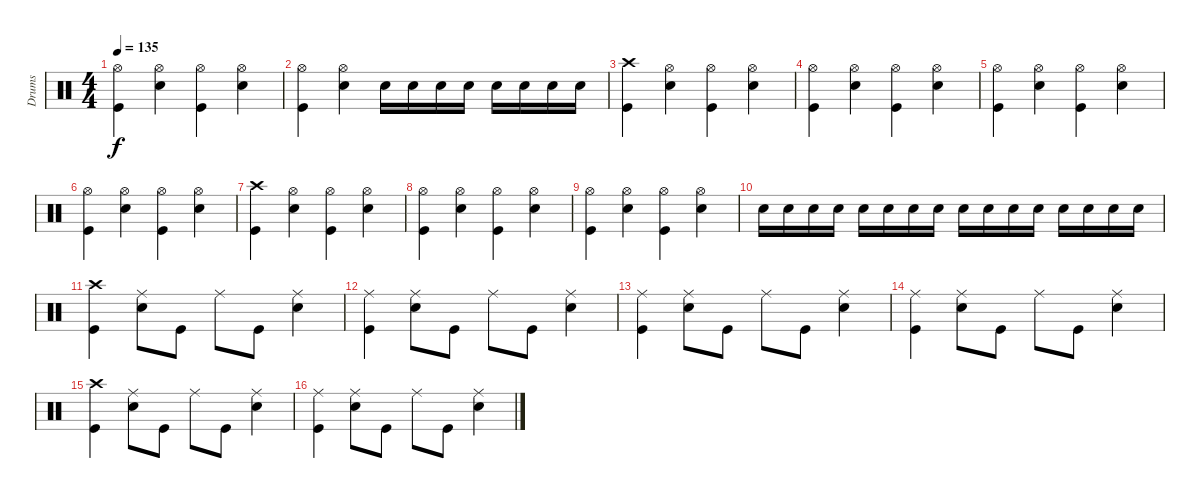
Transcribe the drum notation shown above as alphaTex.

\track ("Drums" "Drums") {instrument percussion}
\staff {score}
\articulation defaults
\ts (4 4)
\tempo 135
\clef neutral
\ks c
("Hi-Hat (open)" "Kick (hit)").4{dy f} ("Hi-Hat (open)" "Snare (hit) 2").4 ("Hi-Hat (open)" "Kick (hit)").4 ("Hi-Hat (open)" "Snare (hit) 2").4 |
("Hi-Hat (open)" "Kick (hit)").4 ("Hi-Hat (open)" "Snare (hit) 2").4 "Snare (hit) 2".16 "Snare (hit) 2".16 "Snare (hit) 2".16 "Snare (hit) 2".16 "Snare (hit) 2".16 "Snare (hit) 2".16 "Snare (hit) 2".16 "Snare (hit) 2".16 |
("Crash high (hit)" "Kick (hit)").4 ("Hi-Hat (open)" "Snare (hit) 2").4 ("Hi-Hat (open)" "Kick (hit)").4 ("Hi-Hat (open)" "Snare (hit) 2").4 |
("Hi-Hat (open)" "Kick (hit)").4 ("Hi-Hat (open)" "Snare (hit) 2").4 ("Hi-Hat (open)" "Kick (hit)").4 ("Hi-Hat (open)" "Snare (hit) 2").4 |
("Hi-Hat (open)" "Kick (hit)").4 ("Hi-Hat (open)" "Snare (hit) 2").4 ("Hi-Hat (open)" "Kick (hit)").4 ("Hi-Hat (open)" "Snare (hit) 2").4 |
("Hi-Hat (open)" "Kick (hit)").4 ("Hi-Hat (open)" "Snare (hit) 2").4 ("Hi-Hat (open)" "Kick (hit)").4 ("Hi-Hat (open)" "Snare (hit) 2").4 |
("Crash high (hit)" "Kick (hit)").4 ("Hi-Hat (open)" "Snare (hit) 2").4 ("Hi-Hat (open)" "Kick (hit)").4 ("Hi-Hat (open)" "Snare (hit) 2").4 |
("Hi-Hat (open)" "Kick (hit)").4 ("Hi-Hat (open)" "Snare (hit) 2").4 ("Hi-Hat (open)" "Kick (hit)").4 ("Hi-Hat (open)" "Snare (hit) 2").4 |
("Hi-Hat (open)" "Kick (hit)").4 ("Hi-Hat (open)" "Snare (hit) 2").4 ("Hi-Hat (open)" "Kick (hit)").4 ("Hi-Hat (open)" "Snare (hit) 2").4 |
"Snare (hit) 2".16 "Snare (hit) 2".16 "Snare (hit) 2".16 "Snare (hit) 2".16 "Snare (hit) 2".16 "Snare (hit) 2".16 "Snare (hit) 2".16 "Snare (hit) 2".16 "Snare (hit) 2".16 "Snare (hit) 2".16 "Snare (hit) 2".16 "Snare (hit) 2".16 "Snare (hit) 2".16 "Snare (hit) 2".16 "Snare (hit) 2".16 "Snare (hit) 2".16 |
("Crash high (hit)" "Kick (hit)").4 ("Ride (middle)" "Snare (hit) 2").8 "Kick (hit)".8 "Ride (middle)".8 "Kick (hit)".8 ("Ride (middle)" "Snare (hit) 2").4 |
("Ride (middle)" "Kick (hit)").4 ("Ride (middle)" "Snare (hit) 2").8 "Kick (hit)".8 "Ride (middle)".8 "Kick (hit)".8 ("Ride (middle)" "Snare (hit) 2").4 |
("Ride (middle)" "Kick (hit)").4 ("Ride (middle)" "Snare (hit) 2").8 "Kick (hit)".8 "Ride (middle)".8 "Kick (hit)".8 ("Ride (middle)" "Snare (hit) 2").4 |
("Ride (middle)" "Kick (hit)").4 ("Ride (middle)" "Snare (hit) 2").8 "Kick (hit)".8 "Ride (middle)".8 "Kick (hit)".8 ("Ride (middle)" "Snare (hit) 2").4 |
("Crash high (hit)" "Kick (hit)").4 ("Ride (middle)" "Snare (hit) 2").8 "Kick (hit)".8 "Ride (middle)".8 "Kick (hit)".8 ("Ride (middle)" "Snare (hit) 2").4 |
("Ride (middle)" "Kick (hit)").4 ("Ride (middle)" "Snare (hit) 2").8 "Kick (hit)".8 "Ride (middle)".8 "Kick (hit)".8 ("Ride (middle)" "Snare (hit) 2").4
